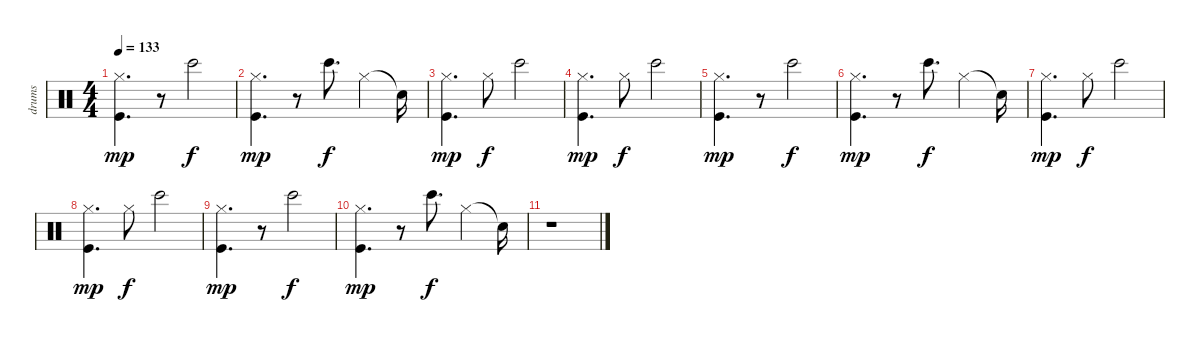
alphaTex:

\track ("drums" "drums") {instrument percussion}
\staff {score}
\articulation defaults
\ts (4 4)
\tempo 133
\clef neutral
\ks c
("Kick (hit)" "Hi-Hat (closed)").4{d dy mp} r.8 "Bongo High (hit)".2{dy f} |
("Kick (hit)" "Hi-Hat (closed)").4{d dy mp} r.8 "Bongo High (hit)".8{d dy f} "Hi-Hat (closed)".4 "Snare (hit)"{t}.16 |
("Kick (hit)" "Hi-Hat (closed)").4{d dy mp} "Hi-Hat (closed)".8{dy f} "Bongo High (hit)".2 |
("Kick (hit)" "Hi-Hat (closed)").4{d dy mp} "Hi-Hat (closed)".8{dy f} "Bongo High (hit)".2 |
("Kick (hit)" "Hi-Hat (closed)").4{d dy mp} r.8 "Bongo High (hit)".2{dy f} |
("Kick (hit)" "Hi-Hat (closed)").4{d dy mp} r.8 "Bongo High (hit)".8{d dy f} "Hi-Hat (closed)".4 "Snare (hit)"{t}.16 |
("Kick (hit)" "Hi-Hat (closed)").4{d dy mp} "Hi-Hat (closed)".8{dy f} "Bongo High (hit)".2 |
("Kick (hit)" "Hi-Hat (closed)").4{d dy mp} "Hi-Hat (closed)".8{dy f} "Bongo High (hit)".2 |
("Kick (hit)" "Hi-Hat (closed)").4{d dy mp} r.8 "Bongo High (hit)".2{dy f} |
("Kick (hit)" "Hi-Hat (closed)").4{d dy mp} r.8 "Bongo High (hit)".8{d dy f} "Hi-Hat (closed)".4 "Snare (hit)"{t}.16 |
r.1
